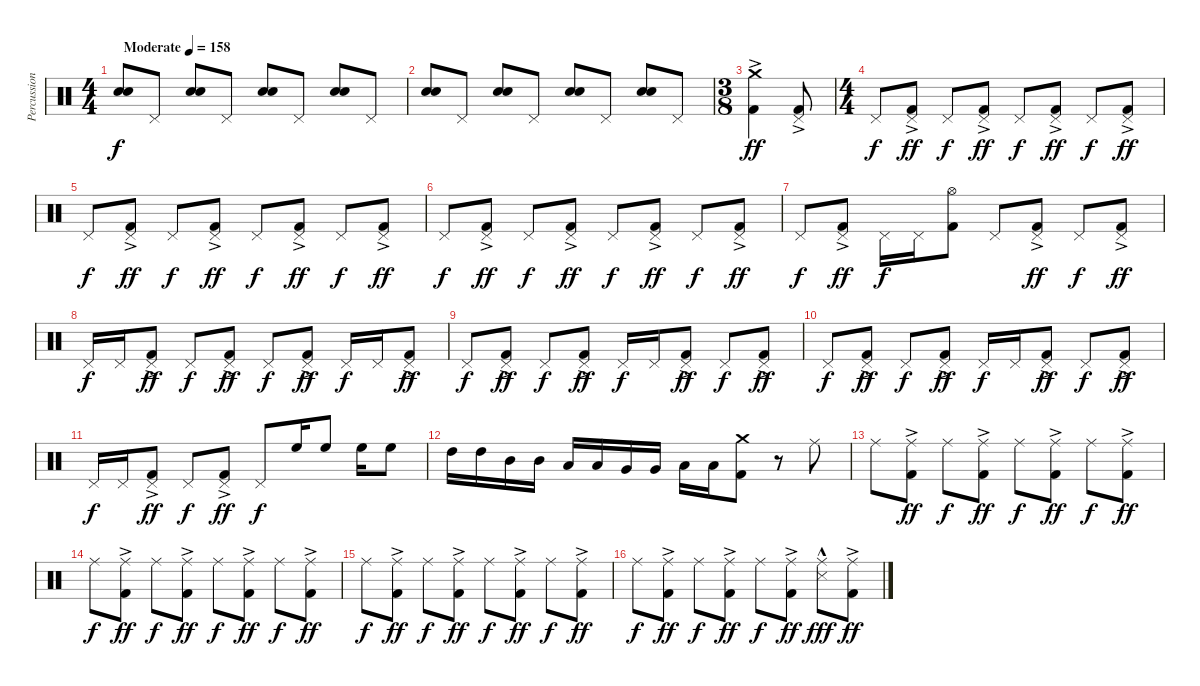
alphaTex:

\track ("Percussion" "Percussion") {instrument percussion}
\staff {score}
\articulation defaults
\ts (4 4)
\tempo (158 "Moderate")
\clef neutral
\ks c
("Electric Snare (hit)" "Electric Snare (hit)").8{dy f} "Pedal Hi-Hat (hit)".8 ("Electric Snare (hit)" "Electric Snare (hit)").8 "Pedal Hi-Hat (hit)".8 ("Electric Snare (hit)" "Electric Snare (hit)").8 "Pedal Hi-Hat (hit)".8 ("Electric Snare (hit)" "Electric Snare (hit)").8 "Pedal Hi-Hat (hit)".8 |
("Electric Snare (hit)" "Electric Snare (hit)").8 "Pedal Hi-Hat (hit)".8 ("Electric Snare (hit)" "Electric Snare (hit)").8 "Pedal Hi-Hat (hit)".8 ("Electric Snare (hit)" "Electric Snare (hit)").8 "Pedal Hi-Hat (hit)".8 ("Electric Snare (hit)" "Electric Snare (hit)").8 "Pedal Hi-Hat (hit)".8 |
\ts (3 8)
("Crash medium (hit)" "Kick (hit) 2"{ac}).4{dy ff} ("Pedal Hi-Hat (hit)"{ac} "Kick (hit) 2").8 |
\ts (4 4)
"Pedal Hi-Hat (hit)".8{dy f} ("Pedal Hi-Hat (hit)"{ac} "Kick (hit) 2").8{dy ff} "Pedal Hi-Hat (hit)".8{dy f} ("Pedal Hi-Hat (hit)"{ac} "Kick (hit) 2").8{dy ff} "Pedal Hi-Hat (hit)".8{dy f} ("Pedal Hi-Hat (hit)"{ac} "Kick (hit) 2").8{dy ff} "Pedal Hi-Hat (hit)".8{dy f} ("Pedal Hi-Hat (hit)"{ac} "Kick (hit) 2").8{dy ff} |
"Pedal Hi-Hat (hit)".8{dy f} ("Pedal Hi-Hat (hit)"{ac} "Kick (hit) 2").8{dy ff} "Pedal Hi-Hat (hit)".8{dy f} ("Pedal Hi-Hat (hit)"{ac} "Kick (hit) 2").8{dy ff} "Pedal Hi-Hat (hit)".8{dy f} ("Pedal Hi-Hat (hit)"{ac} "Kick (hit) 2").8{dy ff} "Pedal Hi-Hat (hit)".8{dy f} ("Pedal Hi-Hat (hit)"{ac} "Kick (hit) 2").8{dy ff} |
"Pedal Hi-Hat (hit)".8{dy f} ("Pedal Hi-Hat (hit)"{ac} "Kick (hit) 2").8{dy ff} "Pedal Hi-Hat (hit)".8{dy f} ("Pedal Hi-Hat (hit)"{ac} "Kick (hit) 2").8{dy ff} "Pedal Hi-Hat (hit)".8{dy f} ("Pedal Hi-Hat (hit)"{ac} "Kick (hit) 2").8{dy ff} "Pedal Hi-Hat (hit)".8{dy f} ("Pedal Hi-Hat (hit)"{ac} "Kick (hit) 2").8{dy ff} |
"Pedal Hi-Hat (hit)".8{dy f} ("Pedal Hi-Hat (hit)"{ac} "Kick (hit) 2").8{dy ff} "Pedal Hi-Hat (hit)".16{dy f} "Pedal Hi-Hat (hit)".16 ("Hi-Hat (open)" "Kick (hit) 2").8 "Pedal Hi-Hat (hit)".8 ("Pedal Hi-Hat (hit)"{ac} "Kick (hit) 2").8{dy ff} "Pedal Hi-Hat (hit)".8{dy f} ("Pedal Hi-Hat (hit)"{ac} "Kick (hit) 2").8{dy ff} |
"Pedal Hi-Hat (hit)".16{dy f} "Pedal Hi-Hat (hit)".16 ("Pedal Hi-Hat (hit)"{ac} "Kick (hit) 2").8{dy ff} "Pedal Hi-Hat (hit)".8{dy f} ("Pedal Hi-Hat (hit)"{ac} "Kick (hit) 2").8{dy ff} "Pedal Hi-Hat (hit)".8{dy f} ("Pedal Hi-Hat (hit)"{ac} "Kick (hit) 2").8{dy ff} "Pedal Hi-Hat (hit)".16{dy f} "Pedal Hi-Hat (hit)".16 ("Pedal Hi-Hat (hit)"{ac} "Kick (hit) 2").8{dy ff} |
"Pedal Hi-Hat (hit)".8{dy f} ("Pedal Hi-Hat (hit)"{ac} "Kick (hit) 2").8{dy ff} "Pedal Hi-Hat (hit)".8{dy f} ("Pedal Hi-Hat (hit)"{ac} "Kick (hit) 2").8{dy ff} "Pedal Hi-Hat (hit)".16{dy f} "Pedal Hi-Hat (hit)".16 ("Pedal Hi-Hat (hit)"{ac} "Kick (hit) 2").8{dy ff} "Pedal Hi-Hat (hit)".8{dy f} ("Pedal Hi-Hat (hit)"{ac} "Kick (hit) 2").8{dy ff} |
"Pedal Hi-Hat (hit)".8{dy f} ("Pedal Hi-Hat (hit)"{ac} "Kick (hit) 2").8{dy ff} "Pedal Hi-Hat (hit)".8{dy f} ("Pedal Hi-Hat (hit)"{ac} "Kick (hit) 2").8{dy ff} "Pedal Hi-Hat (hit)".16{dy f} "Pedal Hi-Hat (hit)".16 ("Pedal Hi-Hat (hit)"{ac} "Kick (hit) 2").8{dy ff} "Pedal Hi-Hat (hit)".8{dy f} ("Pedal Hi-Hat (hit)"{ac} "Kick (hit) 2").8{dy ff} |
"Pedal Hi-Hat (hit)".16{dy f} "Pedal Hi-Hat (hit)".16 ("Pedal Hi-Hat (hit)"{ac} "Kick (hit) 2").8{dy ff} "Pedal Hi-Hat (hit)".8{dy f} ("Pedal Hi-Hat (hit)"{ac} "Kick (hit) 2").8{dy ff} "Pedal Hi-Hat (hit)".8{dy f} "High Floor Tom (hit)".16 "High Floor Tom (hit)".8 "High Floor Tom (hit)".16 "High Floor Tom (hit)".8 |
"High Tom (hit)".16 "High Tom (hit)".16 "Mid Tom (hit)".16 "Mid Tom (hit)".16 "Low Tom (hit)".16 "Low Tom (hit)".16 "Very Low Tom (hit)".16 "Very Low Tom (hit)".16 "Low Floor Tom (hit)".16 "Low Floor Tom (hit)".16 ("Crash medium (hit)" "Kick (hit) 2").8 r.8 "Ride (middle)".8 |
"Ride (middle)".8 ("Ride (middle)"{ac} "Kick (hit) 2").8{dy ff} "Ride (middle)".8{dy f} ("Ride (middle)"{ac} "Kick (hit) 2").8{dy ff} "Ride (middle)".8{dy f} ("Ride (middle)"{ac} "Kick (hit) 2").8{dy ff} "Ride (middle)".8{dy f} ("Ride (middle)"{ac} "Kick (hit) 2").8{dy ff} |
"Ride (middle)".8{dy f} ("Ride (middle)"{ac} "Kick (hit) 2").8{dy ff} "Ride (middle)".8{dy f} ("Ride (middle)"{ac} "Kick (hit) 2").8{dy ff} "Ride (middle)".8{dy f} ("Ride (middle)"{ac} "Kick (hit) 2").8{dy ff} "Ride (middle)".8{dy f} ("Ride (middle)"{ac} "Kick (hit) 2").8{dy ff} |
"Ride (middle)".8{dy f} ("Ride (middle)"{ac} "Kick (hit) 2").8{dy ff} "Ride (middle)".8{dy f} ("Ride (middle)"{ac} "Kick (hit) 2").8{dy ff} "Ride (middle)".8{dy f} ("Ride (middle)"{ac} "Kick (hit) 2").8{dy ff} "Ride (middle)".8{dy f} ("Ride (middle)"{ac} "Kick (hit) 2").8{dy ff} |
"Ride (middle)".8{dy f} ("Ride (middle)"{ac} "Kick (hit) 2").8{dy ff} "Ride (middle)".8{dy f} ("Ride (middle)"{ac} "Kick (hit) 2").8{dy ff} "Ride (middle)".8{dy f} ("Ride (middle)"{ac} "Kick (hit) 2").8{dy ff} ("Ride (middle)" "Snare (side stick) 3"{hac}).8{dy fff} ("Ride (middle)"{ac} "Kick (hit) 2").8{dy ff}
